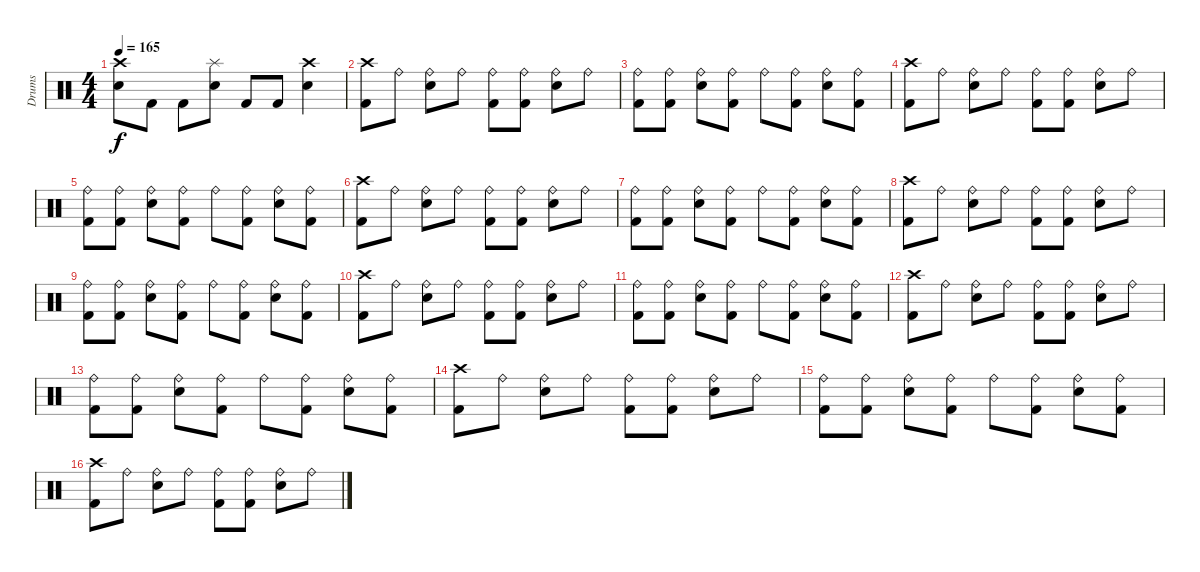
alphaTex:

\track ("Drums" "Drums") {instrument percussion}
\staff {score}
\articulation defaults
\ts (4 4)
\tempo 165
\clef neutral
\ks c
("Crash high (hit)" "Snare (hit) 2").8{dy f} "Kick (hit) 2".8 "Kick (hit) 2".8 ("Splash (hit)" "Snare (hit) 2").8 "Kick (hit) 2".8 "Kick (hit) 2".8 ("Crash high (hit)" "Snare (hit) 2").4 |
("Crash high (hit)" "Kick (hit) 2").8 "Ride (bell)".8 ("Ride (bell)" "Snare (hit) 2").8 "Ride (bell)".8 ("Ride (bell)" "Kick (hit) 2").8 ("Ride (bell)" "Kick (hit) 2").8 ("Ride (bell)" "Snare (hit) 2").8 "Ride (bell)".8 |
("Ride (bell)" "Kick (hit) 2").8 ("Ride (bell)" "Kick (hit) 2").8 ("Ride (bell)" "Snare (hit) 2").8 ("Ride (bell)" "Kick (hit) 2").8 "Ride (bell)".8 ("Ride (bell)" "Kick (hit) 2").8 ("Ride (bell)" "Snare (hit) 2").8 ("Ride (bell)" "Kick (hit) 2").8 |
("Crash high (hit)" "Kick (hit) 2").8 "Ride (bell)".8 ("Ride (bell)" "Snare (hit) 2").8 "Ride (bell)".8 ("Ride (bell)" "Kick (hit) 2").8 ("Ride (bell)" "Kick (hit) 2").8 ("Ride (bell)" "Snare (hit) 2").8 "Ride (bell)".8 |
("Ride (bell)" "Kick (hit) 2").8 ("Ride (bell)" "Kick (hit) 2").8 ("Ride (bell)" "Snare (hit) 2").8 ("Ride (bell)" "Kick (hit) 2").8 "Ride (bell)".8 ("Ride (bell)" "Kick (hit) 2").8 ("Ride (bell)" "Snare (hit) 2").8 ("Ride (bell)" "Kick (hit) 2").8 |
("Crash high (hit)" "Kick (hit) 2").8 "Ride (bell)".8 ("Ride (bell)" "Snare (hit) 2").8 "Ride (bell)".8 ("Ride (bell)" "Kick (hit) 2").8 ("Ride (bell)" "Kick (hit) 2").8 ("Ride (bell)" "Snare (hit) 2").8 "Ride (bell)".8 |
("Ride (bell)" "Kick (hit) 2").8 ("Ride (bell)" "Kick (hit) 2").8 ("Ride (bell)" "Snare (hit) 2").8 ("Ride (bell)" "Kick (hit) 2").8 "Ride (bell)".8 ("Ride (bell)" "Kick (hit) 2").8 ("Ride (bell)" "Snare (hit) 2").8 ("Ride (bell)" "Kick (hit) 2").8 |
("Crash high (hit)" "Kick (hit) 2").8 "Ride (bell)".8 ("Ride (bell)" "Snare (hit) 2").8 "Ride (bell)".8 ("Ride (bell)" "Kick (hit) 2").8 ("Ride (bell)" "Kick (hit) 2").8 ("Ride (bell)" "Snare (hit) 2").8 "Ride (bell)".8 |
("Ride (bell)" "Kick (hit) 2").8 ("Ride (bell)" "Kick (hit) 2").8 ("Ride (bell)" "Snare (hit) 2").8 ("Ride (bell)" "Kick (hit) 2").8 "Ride (bell)".8 ("Ride (bell)" "Kick (hit) 2").8 ("Ride (bell)" "Snare (hit) 2").8 ("Ride (bell)" "Kick (hit) 2").8 |
("Crash high (hit)" "Kick (hit) 2").8 "Ride (bell)".8 ("Ride (bell)" "Snare (hit) 2").8 "Ride (bell)".8 ("Ride (bell)" "Kick (hit) 2").8 ("Ride (bell)" "Kick (hit) 2").8 ("Ride (bell)" "Snare (hit) 2").8 "Ride (bell)".8 |
("Ride (bell)" "Kick (hit) 2").8 ("Ride (bell)" "Kick (hit) 2").8 ("Ride (bell)" "Snare (hit) 2").8 ("Ride (bell)" "Kick (hit) 2").8 "Ride (bell)".8 ("Ride (bell)" "Kick (hit) 2").8 ("Ride (bell)" "Snare (hit) 2").8 ("Ride (bell)" "Kick (hit) 2").8 |
("Crash high (hit)" "Kick (hit) 2").8 "Ride (bell)".8 ("Ride (bell)" "Snare (hit) 2").8 "Ride (bell)".8 ("Ride (bell)" "Kick (hit) 2").8 ("Ride (bell)" "Kick (hit) 2").8 ("Ride (bell)" "Snare (hit) 2").8 "Ride (bell)".8 |
("Ride (bell)" "Kick (hit) 2").8 ("Ride (bell)" "Kick (hit) 2").8 ("Ride (bell)" "Snare (hit) 2").8 ("Ride (bell)" "Kick (hit) 2").8 "Ride (bell)".8 ("Ride (bell)" "Kick (hit) 2").8 ("Ride (bell)" "Snare (hit) 2").8 ("Ride (bell)" "Kick (hit) 2").8 |
("Crash high (hit)" "Kick (hit) 2").8 "Ride (bell)".8 ("Ride (bell)" "Snare (hit) 2").8 "Ride (bell)".8 ("Ride (bell)" "Kick (hit) 2").8 ("Ride (bell)" "Kick (hit) 2").8 ("Ride (bell)" "Snare (hit) 2").8 "Ride (bell)".8 |
("Ride (bell)" "Kick (hit) 2").8 ("Ride (bell)" "Kick (hit) 2").8 ("Ride (bell)" "Snare (hit) 2").8 ("Ride (bell)" "Kick (hit) 2").8 "Ride (bell)".8 ("Ride (bell)" "Kick (hit) 2").8 ("Ride (bell)" "Snare (hit) 2").8 ("Ride (bell)" "Kick (hit) 2").8 |
("Crash high (hit)" "Kick (hit) 2").8 "Ride (bell)".8 ("Ride (bell)" "Snare (hit) 2").8 "Ride (bell)".8 ("Ride (bell)" "Kick (hit) 2").8 ("Ride (bell)" "Kick (hit) 2").8 ("Ride (bell)" "Snare (hit) 2").8 "Ride (bell)".8
